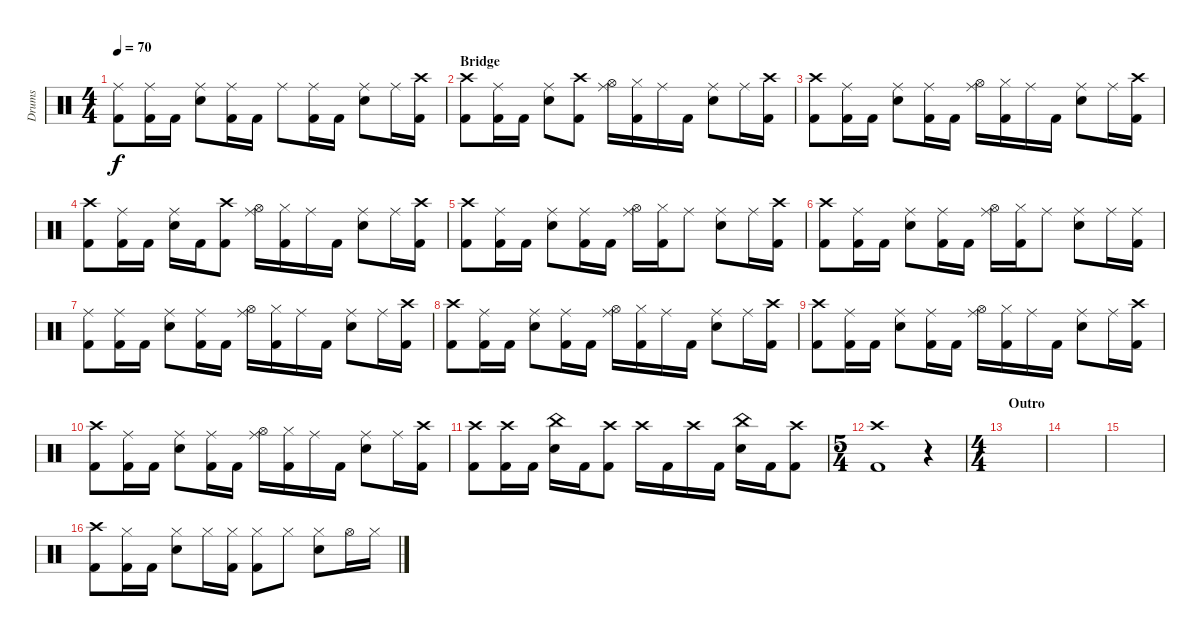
\track ("Drums" "Drums") {instrument percussion}
\staff {score}
\articulation defaults
\ts (4 4)
\tempo 70
\clef neutral
\ks c
("Ride (middle)" "Kick (hit) 2").8{dy f} ("Ride (middle)" "Kick (hit) 2").16 "Kick (hit) 2".16 ("Ride (middle)" "Electric Snare (hit)").8 ("Ride (middle)" "Kick (hit) 2").16 "Kick (hit) 2".16 "Ride (middle)".8 ("Ride (middle)" "Kick (hit) 2").16 "Kick (hit) 2".16 ("Ride (middle)" "Electric Snare (hit)").8 "Ride (middle)".16 ("Crash high (hit)" "Kick (hit) 2").16 |
\section ("" "Bridge")
("Crash high (hit)" "Kick (hit) 2").8 ("Ride (middle)" "Kick (hit) 2").16 "Kick (hit) 2".16 ("Ride (middle)" "Electric Snare (hit)").8 ("Crash high (hit)" "Kick (hit) 2").8 ("Ride (middle)" "Hi-Hat (open)").16 ("Hi-Hat (closed)" "Kick (hit) 2").16 "Ride (middle)".16 "Kick (hit) 2".16 ("Ride (middle)" "Electric Snare (hit)").8 "Ride (middle)".16 ("Crash high (hit)" "Kick (hit) 2").16 |
("Crash high (hit)" "Kick (hit) 2").8 ("Ride (middle)" "Kick (hit) 2").16 "Kick (hit) 2".16 ("Ride (middle)" "Electric Snare (hit)").8 ("Ride (middle)" "Kick (hit) 2").16 "Kick (hit) 2".16 ("Ride (middle)" "Hi-Hat (open)").16 ("Hi-Hat (closed)" "Kick (hit) 2").16 "Ride (middle)".16 "Kick (hit) 2".16 ("Ride (middle)" "Electric Snare (hit)").8 "Ride (middle)".16 ("Crash high (hit)" "Kick (hit) 2").16 |
("Crash high (hit)" "Kick (hit) 2").8 ("Ride (middle)" "Kick (hit) 2").16 "Kick (hit) 2".16 ("Ride (middle)" "Electric Snare (hit)").16 "Kick (hit) 2".16 ("Crash high (hit)" "Kick (hit) 2").8 ("Ride (middle)" "Hi-Hat (open)").16 ("Hi-Hat (closed)" "Kick (hit) 2").16 "Ride (middle)".16 "Kick (hit) 2".16 ("Ride (middle)" "Electric Snare (hit)").8 "Ride (middle)".16 ("Crash high (hit)" "Kick (hit) 2").16 |
("Crash high (hit)" "Kick (hit) 2").8 ("Ride (middle)" "Kick (hit) 2").16 "Kick (hit) 2".16 ("Ride (middle)" "Electric Snare (hit)").8 ("Ride (middle)" "Kick (hit) 2").16 "Kick (hit) 2".16 ("Ride (middle)" "Hi-Hat (open)").16 ("Hi-Hat (closed)" "Kick (hit) 2").16 "Ride (middle)".8 ("Ride (middle)" "Electric Snare (hit)").8 "Ride (middle)".16 ("Crash high (hit)" "Kick (hit) 2").16 |
("Crash high (hit)" "Kick (hit) 2").8 ("Ride (middle)" "Kick (hit) 2").16 "Kick (hit) 2".16 ("Ride (middle)" "Electric Snare (hit)").8 ("Ride (middle)" "Kick (hit) 2").16 "Kick (hit) 2".16 ("Ride (middle)" "Hi-Hat (open)").16 ("Hi-Hat (closed)" "Kick (hit) 2").16 "Ride (middle)".8 ("Ride (middle)" "Electric Snare (hit)").8 "Ride (middle)".16 ("Ride (middle)" "Kick (hit) 2").16 |
("Ride (middle)" "Kick (hit) 2").8 ("Ride (middle)" "Kick (hit) 2").16 "Kick (hit) 2".16 ("Ride (middle)" "Electric Snare (hit)").8 ("Ride (middle)" "Kick (hit) 2").16 "Kick (hit) 2".16 ("Ride (middle)" "Hi-Hat (open)").16 ("Hi-Hat (closed)" "Kick (hit) 2").16 "Ride (middle)".16 "Kick (hit) 2".16 ("Ride (middle)" "Electric Snare (hit)").8 "Ride (middle)".16 ("Crash high (hit)" "Kick (hit) 2").16 |
("Crash high (hit)" "Kick (hit) 2").8 ("Ride (middle)" "Kick (hit) 2").16 "Kick (hit) 2".16 ("Ride (middle)" "Electric Snare (hit)").8 ("Ride (middle)" "Kick (hit) 2").16 "Kick (hit) 2".16 ("Ride (middle)" "Hi-Hat (open)").16 ("Hi-Hat (closed)" "Kick (hit) 2").16 "Ride (middle)".16 "Kick (hit) 2".16 ("Ride (middle)" "Electric Snare (hit)").8 "Ride (middle)".16 ("Crash high (hit)" "Kick (hit) 2").16 |
("Crash high (hit)" "Kick (hit) 2").8 ("Ride (middle)" "Kick (hit) 2").16 "Kick (hit) 2".16 ("Ride (middle)" "Electric Snare (hit)").8 ("Ride (middle)" "Kick (hit) 2").16 "Kick (hit) 2".16 ("Ride (middle)" "Hi-Hat (open)").16 ("Hi-Hat (closed)" "Kick (hit) 2").16 "Ride (middle)".16 "Kick (hit) 2".16 ("Ride (middle)" "Electric Snare (hit)").8 "Ride (middle)".16 ("Crash high (hit)" "Kick (hit) 2").16 |
("Crash high (hit)" "Kick (hit) 2").8 ("Ride (middle)" "Kick (hit) 2").16 "Kick (hit) 2".16 ("Ride (middle)" "Electric Snare (hit)").8 ("Ride (middle)" "Kick (hit) 2").16 "Kick (hit) 2".16 ("Ride (middle)" "Hi-Hat (open)").16 ("Hi-Hat (closed)" "Kick (hit) 2").16 "Ride (middle)".16 "Kick (hit) 2".16 ("Ride (middle)" "Electric Snare (hit)").8 "Ride (middle)".16 ("Crash high (hit)" "Kick (hit) 2").16 |
("Crash high (hit)" "Kick (hit) 2").8 ("Crash high (hit)" "Kick (hit) 2").16 "Kick (hit) 2".16 ("China (hit)" "Electric Snare (hit)").16 "Kick (hit) 2".16 ("Crash high (hit)" "Kick (hit) 2").8 "Crash high (hit)".16 "Kick (hit) 2".16 "Crash high (hit)".16 "Kick (hit) 2".16 ("China (hit)" "Electric Snare (hit)").16 "Kick (hit) 2".16 ("Crash high (hit)" "Kick (hit) 2").8 |
\ts (5 4)
("Crash high (hit)" "Kick (hit) 2").1 r.4 |
\ts (4 4)
\section ("" "Outro")
|
|
|
("Crash high (hit)" "Kick (hit) 2").8 ("Hi-Hat (closed)" "Kick (hit) 2").16 "Kick (hit) 2".16 ("Hi-Hat (closed)" "Electric Snare (hit)").8 "Hi-Hat (closed)".16 ("Hi-Hat (closed)" "Kick (hit) 2").16 ("Hi-Hat (closed)" "Kick (hit) 2").8 "Hi-Hat (closed)".8 ("Hi-Hat (closed)" "Electric Snare (hit)").8 "Hi-Hat (open)".16 "Hi-Hat (closed)".16
